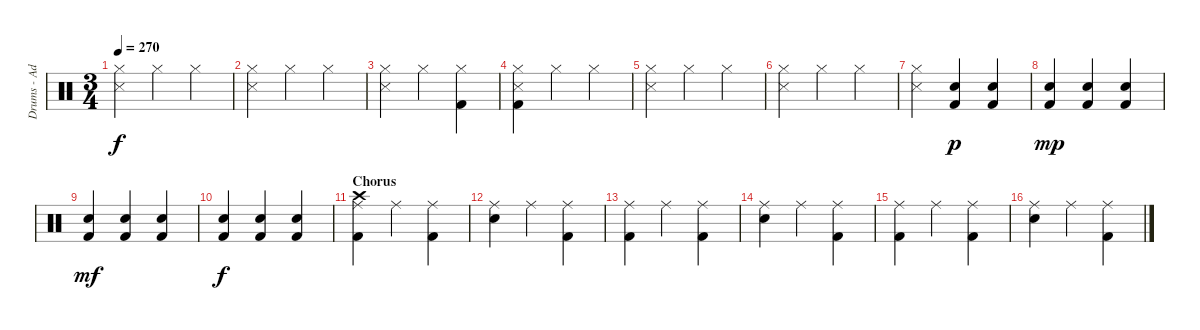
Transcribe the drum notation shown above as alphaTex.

\track ("Drums - Adam" "Drums - Ad") {instrument percussion}
\staff {score}
\articulation defaults
\ts (3 4)
\tempo 270
\clef neutral
\ks c
("Hi-Hat (closed)" "Snare (side stick) 3").4{dy f} "Hi-Hat (closed)".4 "Hi-Hat (closed)".4 |
("Hi-Hat (closed)" "Snare (side stick) 3").4 "Hi-Hat (closed)".4 "Hi-Hat (closed)".4 |
("Hi-Hat (closed)" "Snare (side stick) 3").4 "Hi-Hat (closed)".4 ("Hi-Hat (closed)" "Kick (hit) 2").4 |
("Hi-Hat (closed)" "Kick (hit) 2" "Snare (side stick) 3").4 "Hi-Hat (closed)".4 "Hi-Hat (closed)".4 |
("Hi-Hat (closed)" "Snare (side stick) 3").4 "Hi-Hat (closed)".4 "Hi-Hat (closed)".4 |
("Hi-Hat (closed)" "Snare (side stick) 3").4 "Hi-Hat (closed)".4 "Hi-Hat (closed)".4 |
("Hi-Hat (closed)" "Snare (side stick) 3").4 ("Kick (hit) 2" "Electric Snare (hit)").4{dy p} ("Kick (hit) 2" "Electric Snare (hit)").4 |
("Kick (hit) 2" "Electric Snare (hit)").4{dy mp} ("Kick (hit) 2" "Electric Snare (hit)").4 ("Kick (hit) 2" "Electric Snare (hit)").4 |
("Kick (hit) 2" "Electric Snare (hit)").4{dy mf} ("Kick (hit) 2" "Electric Snare (hit)").4 ("Kick (hit) 2" "Electric Snare (hit)").4 |
("Kick (hit) 2" "Electric Snare (hit)").4{dy f} ("Kick (hit) 2" "Electric Snare (hit)").4 ("Kick (hit) 2" "Electric Snare (hit)").4 |
\section ("" "Chorus")
("Ride (middle)" "Kick (hit) 2" "Crash high (hit)").4 "Ride (middle)".4 ("Ride (middle)" "Kick (hit) 2").4 |
("Ride (middle)" "Electric Snare (hit)").4 "Ride (middle)".4 ("Ride (middle)" "Kick (hit) 2").4 |
("Ride (middle)" "Kick (hit) 2").4 "Ride (middle)".4 ("Ride (middle)" "Kick (hit) 2").4 |
("Ride (middle)" "Electric Snare (hit)").4 "Ride (middle)".4 ("Ride (middle)" "Kick (hit) 2").4 |
("Ride (middle)" "Kick (hit) 2").4 "Ride (middle)".4 ("Ride (middle)" "Kick (hit) 2").4 |
("Ride (middle)" "Electric Snare (hit)").4 "Ride (middle)".4 ("Ride (middle)" "Kick (hit) 2").4
